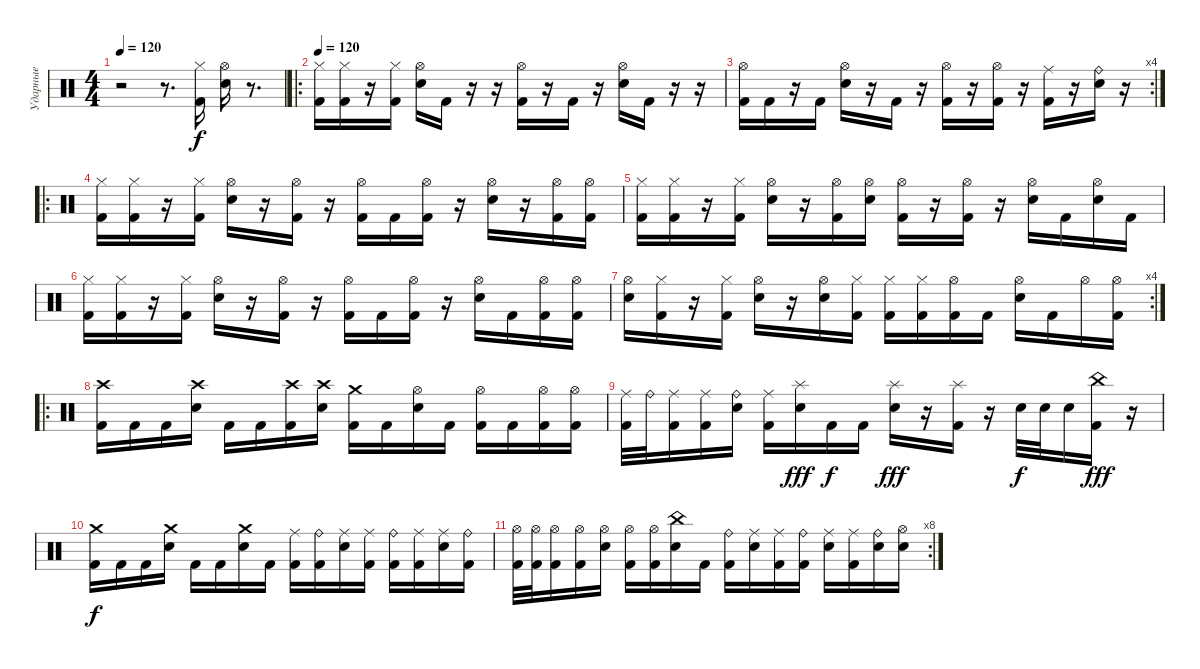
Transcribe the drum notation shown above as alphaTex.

\track ("Ударные" "Ударные") {instrument percussion}
\staff {score}
\articulation defaults
\ts (4 4)
\tempo 120
\clef neutral
\ks c
r.2{dy f} r.8{d} ("Hi-Hat (closed)" "Kick (hit) 2").16 ("Hi-Hat (open)" "Electric Snare (hit)").16 r.8{d} |
\ro
\tempo 120
("Hi-Hat (closed)" "Kick (hit) 2").16 ("Hi-Hat (closed)" "Kick (hit) 2").16 r.16 ("Hi-Hat (closed)" "Kick (hit) 2").16 ("Hi-Hat (open)" "Electric Snare (hit)").16 "Kick (hit) 2".16 r.16 r.16 ("Hi-Hat (open)" "Kick (hit) 2").16 r.16 "Kick (hit) 2".16 r.16 ("Hi-Hat (open)" "Electric Snare (hit)").16 "Kick (hit) 2".16 r.16 r.16 |
\rc 4
("Hi-Hat (open)" "Kick (hit) 2").16 "Kick (hit) 2".16 r.16 "Kick (hit) 2".16 ("Hi-Hat (open)" "Electric Snare (hit)").16 r.16 "Kick (hit) 2".16 r.16 ("Hi-Hat (open)" "Kick (hit) 2").16 r.16 ("Hi-Hat (open)" "Kick (hit) 2").16 r.16 ("Ride (middle)" "Kick (hit) 2").16 r.16 ("Ride (bell)" "Electric Snare (hit)").16 r.16 |
\ro
("Hi-Hat (closed)" "Kick (hit) 2").16 ("Hi-Hat (closed)" "Kick (hit) 2").16 r.16 ("Hi-Hat (closed)" "Kick (hit) 2").16 ("Hi-Hat (open)" "Electric Snare (hit)").16 r.16 ("Hi-Hat (open)" "Kick (hit) 2").16 r.16 ("Hi-Hat (open)" "Kick (hit) 2").16 "Kick (hit) 2".16 ("Hi-Hat (open)" "Kick (hit) 2").16 r.16 ("Hi-Hat (open)" "Electric Snare (hit)").16 r.16 ("Hi-Hat (open)" "Kick (hit) 2").16 ("Hi-Hat (open)" "Kick (hit) 2").16 |
("Hi-Hat (closed)" "Kick (hit) 2").16 ("Hi-Hat (closed)" "Kick (hit) 2").16 r.16 ("Hi-Hat (closed)" "Kick (hit) 2").16 ("Hi-Hat (open)" "Electric Snare (hit)").16 r.16 ("Hi-Hat (open)" "Kick (hit) 2").16 ("Hi-Hat (open)" "Electric Snare (hit)").16 ("Hi-Hat (open)" "Kick (hit) 2").16 r.16 ("Hi-Hat (open)" "Kick (hit) 2").16 r.16 ("Hi-Hat (open)" "Electric Snare (hit)").16 "Kick (hit) 2".16 ("Hi-Hat (open)" "Electric Snare (hit)").16 "Kick (hit) 2".16 |
("Hi-Hat (closed)" "Kick (hit) 2").16 ("Hi-Hat (closed)" "Kick (hit) 2").16 r.16 ("Hi-Hat (closed)" "Kick (hit) 2").16 ("Hi-Hat (open)" "Electric Snare (hit)").16 r.16 ("Hi-Hat (open)" "Kick (hit) 2").16 r.16 ("Hi-Hat (open)" "Kick (hit) 2").16 "Kick (hit) 2".16 ("Hi-Hat (open)" "Kick (hit) 2").16 r.16 ("Hi-Hat (open)" "Electric Snare (hit)").16 "Kick (hit) 2".16 ("Hi-Hat (open)" "Kick (hit) 2").16 ("Hi-Hat (open)" "Kick (hit) 2").16 |
\rc 4
("Hi-Hat (open)" "Electric Snare (hit)").16 ("Hi-Hat (closed)" "Kick (hit) 2").16 r.16 ("Hi-Hat (closed)" "Kick (hit) 2").16 ("Hi-Hat (open)" "Electric Snare (hit)").16 r.16 ("Hi-Hat (open)" "Electric Snare (hit)").16 ("Hi-Hat (closed)" "Kick (hit) 2").16 ("Hi-Hat (closed)" "Kick (hit) 2").16 ("Hi-Hat (closed)" "Kick (hit) 2").16 ("Hi-Hat (open)" "Kick (hit) 2").16 "Kick (hit) 2".16 ("Hi-Hat (open)" "Electric Snare (hit)").16 "Kick (hit) 2".16 "Hi-Hat (open)".16 ("Hi-Hat (open)" "Kick (hit) 2").16 |
\ro
("Crash high (hit)" "Kick (hit) 2").16 "Kick (hit) 2".16 "Kick (hit) 2".16 ("Crash high (hit)" "Electric Snare (hit)").16 "Kick (hit) 2".16 "Kick (hit) 2".16 ("Crash high (hit)" "Kick (hit) 2").16 ("Crash high (hit)" "Electric Snare (hit)").16 ("Crash medium (hit)" "Kick (hit) 2").16 "Kick (hit) 2".16 ("Hi-Hat (open)" "Electric Snare (hit)").16 "Kick (hit) 2".16 ("Hi-Hat (open)" "Kick (hit) 2").16 "Kick (hit) 2".16 ("Hi-Hat (open)" "Kick (hit) 2").16 ("Hi-Hat (open)" "Kick (hit) 2").16 |
("Ride (middle)" "Kick (hit) 2").32 "Ride (bell)".32 ("Ride (middle)" "Kick (hit) 2").16 ("Ride (middle)" "Kick (hit) 2").16 ("Ride (bell)" "Electric Snare (hit)").16 ("Ride (middle)" "Kick (hit) 2").16 ("Splash (hit)" "Electric Snare (hit)").16{dy fff} "Kick (hit) 2".16{dy f} "Kick (hit) 2".16 ("Splash (hit)" "Electric Snare (hit)").16{dy fff} r.16 ("Splash (hit)" "Kick (hit) 2").16 r.16 "Electric Snare (hit)".32{dy f} "Electric Snare (hit)".32 "Electric Snare (hit)".16 ("China (hit)" "Kick (hit) 2").16{dy fff} r.16 |
("Crash medium (hit)" "Kick (hit) 2").16{dy f} "Kick (hit) 2".16 "Kick (hit) 2".16 ("Crash medium (hit)" "Electric Snare (hit)").16 "Kick (hit) 2".16 "Kick (hit) 2".16 ("Crash medium (hit)" "Electric Snare (hit)").16 "Kick (hit) 2".16 ("Ride (middle)" "Kick (hit) 2").16 ("Ride (bell)" "Kick (hit) 2").16 ("Ride (middle)" "Electric Snare (hit)").16 ("Ride (middle)" "Kick (hit) 2").16 ("Ride (bell)" "Kick (hit) 2").16 ("Ride (middle)" "Kick (hit) 2").16 ("Ride (middle)" "Electric Snare (hit)").16 ("Ride (bell)" "Kick (hit) 2").16 |
\rc 8
("Hi-Hat (open)" "Kick (hit) 2").32 ("Hi-Hat (open)" "Kick (hit) 2").32 ("Hi-Hat (open)" "Kick (hit) 2").16 ("Hi-Hat (open)" "Kick (hit) 2").16 ("Hi-Hat (open)" "Electric Snare (hit)").16 ("Hi-Hat (open)" "Kick (hit) 2").16 ("Hi-Hat (open)" "Kick (hit) 2").16 ("China (hit)" "Electric Snare (hit)").16 "Kick (hit) 2".16 ("Ride (bell)" "Kick (hit) 2").16 ("Ride (middle)" "Electric Snare (hit)").16 ("Ride (middle)" "Kick (hit) 2").16 ("Ride (bell)" "Kick (hit) 2").16 ("Ride (middle)" "Electric Snare (hit)").16 ("Ride (middle)" "Kick (hit) 2").16 ("Ride (bell)" "Electric Snare (hit)").16 ("Hi-Hat (open)" "Electric Snare (hit)").16
